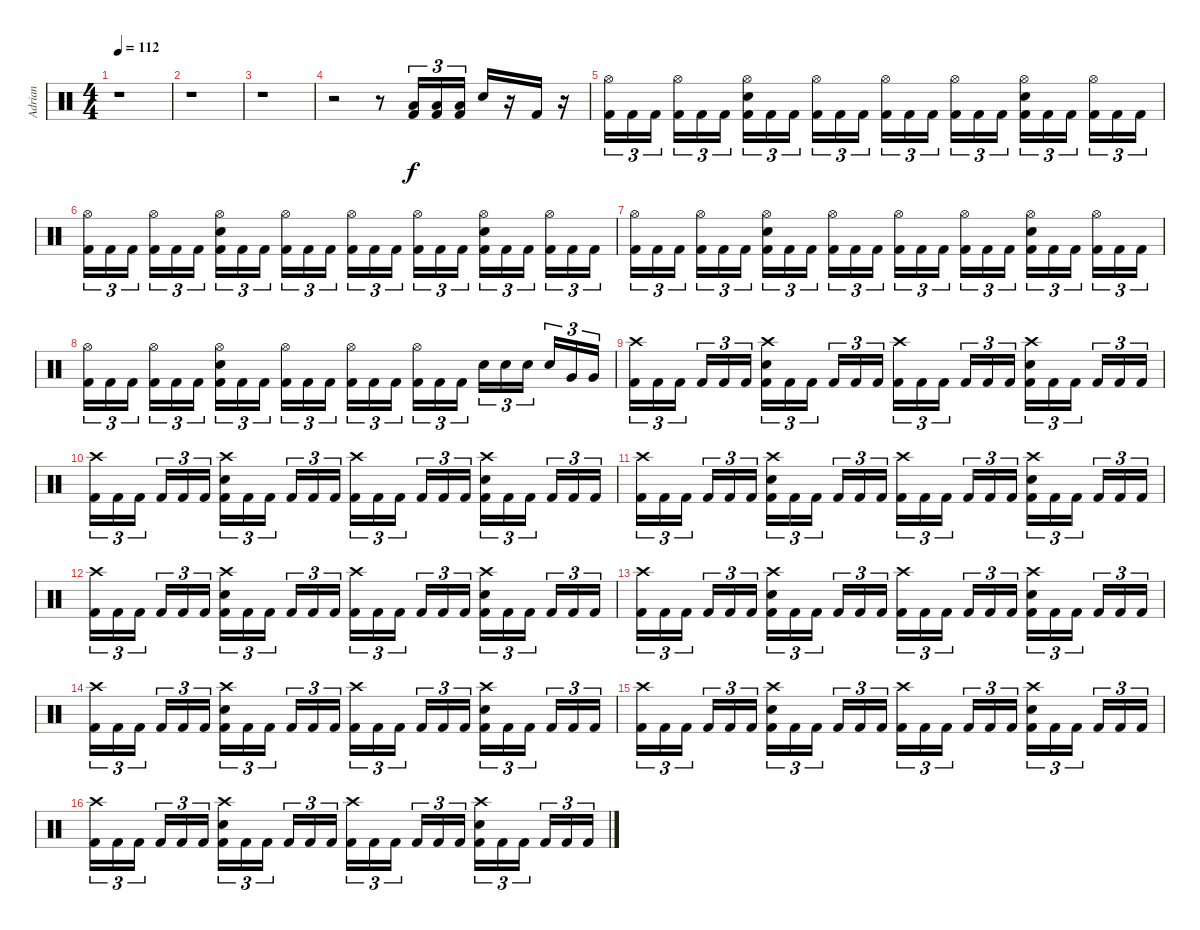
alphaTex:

\track ("Adrian" "Adrian") {instrument percussion}
\staff {score}
\articulation defaults
\ts (4 4)
\tempo 112
\clef neutral
\ks c
r.1{dy f} |
r.1 |
r.1 |
r.2 r.8 ("Low Floor Tom (hit)" "Kick (hit) 2").16{tu (3 2)} ("Low Floor Tom (hit)" "Kick (hit) 2").16{tu (3 2)} ("Low Floor Tom (hit)" "Kick (hit) 2").16{tu (3 2)} "Snare (hit) 2".16 r.16 "Kick (hit) 2".16 r.16 |
("Hi-Hat (open)" "Kick (hit) 2").16{tu (3 2)} "Kick (hit) 2".16{tu (3 2)} "Kick (hit) 2".16{tu (3 2)} ("Hi-Hat (open)" "Kick (hit) 2").16{tu (3 2)} "Kick (hit) 2".16{tu (3 2)} "Kick (hit) 2".16{tu (3 2)} ("Hi-Hat (open)" "Snare (hit) 2" "Kick (hit) 2").16{tu (3 2)} "Kick (hit) 2".16{tu (3 2)} "Kick (hit) 2".16{tu (3 2)} ("Hi-Hat (open)" "Kick (hit) 2").16{tu (3 2)} "Kick (hit) 2".16{tu (3 2)} "Kick (hit) 2".16{tu (3 2)} ("Hi-Hat (open)" "Kick (hit) 2").16{tu (3 2)} "Kick (hit) 2".16{tu (3 2)} "Kick (hit) 2".16{tu (3 2)} ("Hi-Hat (open)" "Kick (hit) 2").16{tu (3 2)} "Kick (hit) 2".16{tu (3 2)} "Kick (hit) 2".16{tu (3 2)} ("Hi-Hat (open)" "Snare (hit) 2" "Kick (hit) 2").16{tu (3 2)} "Kick (hit) 2".16{tu (3 2)} "Kick (hit) 2".16{tu (3 2)} ("Hi-Hat (open)" "Kick (hit) 2").16{tu (3 2)} "Kick (hit) 2".16{tu (3 2)} "Kick (hit) 2".16{tu (3 2)} |
("Hi-Hat (open)" "Kick (hit) 2").16{tu (3 2)} "Kick (hit) 2".16{tu (3 2)} "Kick (hit) 2".16{tu (3 2)} ("Hi-Hat (open)" "Kick (hit) 2").16{tu (3 2)} "Kick (hit) 2".16{tu (3 2)} "Kick (hit) 2".16{tu (3 2)} ("Hi-Hat (open)" "Snare (hit) 2" "Kick (hit) 2").16{tu (3 2)} "Kick (hit) 2".16{tu (3 2)} "Kick (hit) 2".16{tu (3 2)} ("Hi-Hat (open)" "Kick (hit) 2").16{tu (3 2)} "Kick (hit) 2".16{tu (3 2)} "Kick (hit) 2".16{tu (3 2)} ("Hi-Hat (open)" "Kick (hit) 2").16{tu (3 2)} "Kick (hit) 2".16{tu (3 2)} "Kick (hit) 2".16{tu (3 2)} ("Hi-Hat (open)" "Kick (hit) 2").16{tu (3 2)} "Kick (hit) 2".16{tu (3 2)} "Kick (hit) 2".16{tu (3 2)} ("Hi-Hat (open)" "Snare (hit) 2" "Kick (hit) 2").16{tu (3 2)} "Kick (hit) 2".16{tu (3 2)} "Kick (hit) 2".16{tu (3 2)} ("Hi-Hat (open)" "Kick (hit) 2").16{tu (3 2)} "Kick (hit) 2".16{tu (3 2)} "Kick (hit) 2".16{tu (3 2)} |
("Hi-Hat (open)" "Kick (hit) 2").16{tu (3 2)} "Kick (hit) 2".16{tu (3 2)} "Kick (hit) 2".16{tu (3 2)} ("Hi-Hat (open)" "Kick (hit) 2").16{tu (3 2)} "Kick (hit) 2".16{tu (3 2)} "Kick (hit) 2".16{tu (3 2)} ("Hi-Hat (open)" "Snare (hit) 2" "Kick (hit) 2").16{tu (3 2)} "Kick (hit) 2".16{tu (3 2)} "Kick (hit) 2".16{tu (3 2)} ("Hi-Hat (open)" "Kick (hit) 2").16{tu (3 2)} "Kick (hit) 2".16{tu (3 2)} "Kick (hit) 2".16{tu (3 2)} ("Hi-Hat (open)" "Kick (hit) 2").16{tu (3 2)} "Kick (hit) 2".16{tu (3 2)} "Kick (hit) 2".16{tu (3 2)} ("Hi-Hat (open)" "Kick (hit) 2").16{tu (3 2)} "Kick (hit) 2".16{tu (3 2)} "Kick (hit) 2".16{tu (3 2)} ("Hi-Hat (open)" "Snare (hit) 2" "Kick (hit) 2").16{tu (3 2)} "Kick (hit) 2".16{tu (3 2)} "Kick (hit) 2".16{tu (3 2)} ("Hi-Hat (open)" "Kick (hit) 2").16{tu (3 2)} "Kick (hit) 2".16{tu (3 2)} "Kick (hit) 2".16{tu (3 2)} |
("Hi-Hat (open)" "Kick (hit) 2").16{tu (3 2)} "Kick (hit) 2".16{tu (3 2)} "Kick (hit) 2".16{tu (3 2)} ("Hi-Hat (open)" "Kick (hit) 2").16{tu (3 2)} "Kick (hit) 2".16{tu (3 2)} "Kick (hit) 2".16{tu (3 2)} ("Hi-Hat (open)" "Snare (hit) 2" "Kick (hit) 2").16{tu (3 2)} "Kick (hit) 2".16{tu (3 2)} "Kick (hit) 2".16{tu (3 2)} ("Hi-Hat (open)" "Kick (hit) 2").16{tu (3 2)} "Kick (hit) 2".16{tu (3 2)} "Kick (hit) 2".16{tu (3 2)} ("Hi-Hat (open)" "Kick (hit) 2").16{tu (3 2)} "Kick (hit) 2".16{tu (3 2)} "Kick (hit) 2".16{tu (3 2)} ("Hi-Hat (open)" "Kick (hit) 2").16{tu (3 2)} "Kick (hit) 2".16{tu (3 2)} "Kick (hit) 2".16{tu (3 2)} "Snare (hit) 2".16{tu (3 2)} "Snare (hit) 2".16{tu (3 2)} "Snare (hit) 2".16{tu (3 2)} "Snare (hit) 2".16{tu (3 2)} "Very Low Tom (hit)".16{tu (3 2)} "Very Low Tom (hit)".16{tu (3 2)} |
("Crash high (hit)" "Kick (hit) 2").16{tu (3 2)} "Kick (hit) 2".16{tu (3 2)} "Kick (hit) 2".16{tu (3 2)} "Kick (hit) 2".16{tu (3 2)} "Kick (hit) 2".16{tu (3 2)} "Kick (hit) 2".16{tu (3 2)} ("Crash high (hit)" "Snare (hit) 2" "Kick (hit) 2").16{tu (3 2)} "Kick (hit) 2".16{tu (3 2)} "Kick (hit) 2".16{tu (3 2)} "Kick (hit) 2".16{tu (3 2)} "Kick (hit) 2".16{tu (3 2)} "Kick (hit) 2".16{tu (3 2)} ("Crash high (hit)" "Kick (hit) 2").16{tu (3 2)} "Kick (hit) 2".16{tu (3 2)} "Kick (hit) 2".16{tu (3 2)} "Kick (hit) 2".16{tu (3 2)} "Kick (hit) 2".16{tu (3 2)} "Kick (hit) 2".16{tu (3 2)} ("Crash high (hit)" "Snare (hit) 2" "Kick (hit) 2").16{tu (3 2)} "Kick (hit) 2".16{tu (3 2)} "Kick (hit) 2".16{tu (3 2)} "Kick (hit) 2".16{tu (3 2)} "Kick (hit) 2".16{tu (3 2)} "Kick (hit) 2".16{tu (3 2)} |
("Crash high (hit)" "Kick (hit) 2").16{tu (3 2)} "Kick (hit) 2".16{tu (3 2)} "Kick (hit) 2".16{tu (3 2)} "Kick (hit) 2".16{tu (3 2)} "Kick (hit) 2".16{tu (3 2)} "Kick (hit) 2".16{tu (3 2)} ("Crash high (hit)" "Snare (hit) 2" "Kick (hit) 2").16{tu (3 2)} "Kick (hit) 2".16{tu (3 2)} "Kick (hit) 2".16{tu (3 2)} "Kick (hit) 2".16{tu (3 2)} "Kick (hit) 2".16{tu (3 2)} "Kick (hit) 2".16{tu (3 2)} ("Crash high (hit)" "Kick (hit) 2").16{tu (3 2)} "Kick (hit) 2".16{tu (3 2)} "Kick (hit) 2".16{tu (3 2)} "Kick (hit) 2".16{tu (3 2)} "Kick (hit) 2".16{tu (3 2)} "Kick (hit) 2".16{tu (3 2)} ("Crash high (hit)" "Snare (hit) 2" "Kick (hit) 2").16{tu (3 2)} "Kick (hit) 2".16{tu (3 2)} "Kick (hit) 2".16{tu (3 2)} "Kick (hit) 2".16{tu (3 2)} "Kick (hit) 2".16{tu (3 2)} "Kick (hit) 2".16{tu (3 2)} |
("Crash high (hit)" "Kick (hit) 2").16{tu (3 2)} "Kick (hit) 2".16{tu (3 2)} "Kick (hit) 2".16{tu (3 2)} "Kick (hit) 2".16{tu (3 2)} "Kick (hit) 2".16{tu (3 2)} "Kick (hit) 2".16{tu (3 2)} ("Crash high (hit)" "Snare (hit) 2" "Kick (hit) 2").16{tu (3 2)} "Kick (hit) 2".16{tu (3 2)} "Kick (hit) 2".16{tu (3 2)} "Kick (hit) 2".16{tu (3 2)} "Kick (hit) 2".16{tu (3 2)} "Kick (hit) 2".16{tu (3 2)} ("Crash high (hit)" "Kick (hit) 2").16{tu (3 2)} "Kick (hit) 2".16{tu (3 2)} "Kick (hit) 2".16{tu (3 2)} "Kick (hit) 2".16{tu (3 2)} "Kick (hit) 2".16{tu (3 2)} "Kick (hit) 2".16{tu (3 2)} ("Crash high (hit)" "Snare (hit) 2" "Kick (hit) 2").16{tu (3 2)} "Kick (hit) 2".16{tu (3 2)} "Kick (hit) 2".16{tu (3 2)} "Kick (hit) 2".16{tu (3 2)} "Kick (hit) 2".16{tu (3 2)} "Kick (hit) 2".16{tu (3 2)} |
("Crash high (hit)" "Kick (hit) 2").16{tu (3 2)} "Kick (hit) 2".16{tu (3 2)} "Kick (hit) 2".16{tu (3 2)} "Kick (hit) 2".16{tu (3 2)} "Kick (hit) 2".16{tu (3 2)} "Kick (hit) 2".16{tu (3 2)} ("Crash high (hit)" "Snare (hit) 2" "Kick (hit) 2").16{tu (3 2)} "Kick (hit) 2".16{tu (3 2)} "Kick (hit) 2".16{tu (3 2)} "Kick (hit) 2".16{tu (3 2)} "Kick (hit) 2".16{tu (3 2)} "Kick (hit) 2".16{tu (3 2)} ("Crash high (hit)" "Kick (hit) 2").16{tu (3 2)} "Kick (hit) 2".16{tu (3 2)} "Kick (hit) 2".16{tu (3 2)} "Kick (hit) 2".16{tu (3 2)} "Kick (hit) 2".16{tu (3 2)} "Kick (hit) 2".16{tu (3 2)} ("Crash high (hit)" "Snare (hit) 2" "Kick (hit) 2").16{tu (3 2)} "Kick (hit) 2".16{tu (3 2)} "Kick (hit) 2".16{tu (3 2)} "Kick (hit) 2".16{tu (3 2)} "Kick (hit) 2".16{tu (3 2)} "Kick (hit) 2".16{tu (3 2)} |
("Crash high (hit)" "Kick (hit) 2").16{tu (3 2)} "Kick (hit) 2".16{tu (3 2)} "Kick (hit) 2".16{tu (3 2)} "Kick (hit) 2".16{tu (3 2)} "Kick (hit) 2".16{tu (3 2)} "Kick (hit) 2".16{tu (3 2)} ("Crash high (hit)" "Snare (hit) 2" "Kick (hit) 2").16{tu (3 2)} "Kick (hit) 2".16{tu (3 2)} "Kick (hit) 2".16{tu (3 2)} "Kick (hit) 2".16{tu (3 2)} "Kick (hit) 2".16{tu (3 2)} "Kick (hit) 2".16{tu (3 2)} ("Crash high (hit)" "Kick (hit) 2").16{tu (3 2)} "Kick (hit) 2".16{tu (3 2)} "Kick (hit) 2".16{tu (3 2)} "Kick (hit) 2".16{tu (3 2)} "Kick (hit) 2".16{tu (3 2)} "Kick (hit) 2".16{tu (3 2)} ("Crash high (hit)" "Snare (hit) 2" "Kick (hit) 2").16{tu (3 2)} "Kick (hit) 2".16{tu (3 2)} "Kick (hit) 2".16{tu (3 2)} "Kick (hit) 2".16{tu (3 2)} "Kick (hit) 2".16{tu (3 2)} "Kick (hit) 2".16{tu (3 2)} |
("Crash high (hit)" "Kick (hit) 2").16{tu (3 2)} "Kick (hit) 2".16{tu (3 2)} "Kick (hit) 2".16{tu (3 2)} "Kick (hit) 2".16{tu (3 2)} "Kick (hit) 2".16{tu (3 2)} "Kick (hit) 2".16{tu (3 2)} ("Crash high (hit)" "Snare (hit) 2" "Kick (hit) 2").16{tu (3 2)} "Kick (hit) 2".16{tu (3 2)} "Kick (hit) 2".16{tu (3 2)} "Kick (hit) 2".16{tu (3 2)} "Kick (hit) 2".16{tu (3 2)} "Kick (hit) 2".16{tu (3 2)} ("Crash high (hit)" "Kick (hit) 2").16{tu (3 2)} "Kick (hit) 2".16{tu (3 2)} "Kick (hit) 2".16{tu (3 2)} "Kick (hit) 2".16{tu (3 2)} "Kick (hit) 2".16{tu (3 2)} "Kick (hit) 2".16{tu (3 2)} ("Crash high (hit)" "Snare (hit) 2" "Kick (hit) 2").16{tu (3 2)} "Kick (hit) 2".16{tu (3 2)} "Kick (hit) 2".16{tu (3 2)} "Kick (hit) 2".16{tu (3 2)} "Kick (hit) 2".16{tu (3 2)} "Kick (hit) 2".16{tu (3 2)} |
("Crash high (hit)" "Kick (hit) 2").16{tu (3 2)} "Kick (hit) 2".16{tu (3 2)} "Kick (hit) 2".16{tu (3 2)} "Kick (hit) 2".16{tu (3 2)} "Kick (hit) 2".16{tu (3 2)} "Kick (hit) 2".16{tu (3 2)} ("Crash high (hit)" "Snare (hit) 2" "Kick (hit) 2").16{tu (3 2)} "Kick (hit) 2".16{tu (3 2)} "Kick (hit) 2".16{tu (3 2)} "Kick (hit) 2".16{tu (3 2)} "Kick (hit) 2".16{tu (3 2)} "Kick (hit) 2".16{tu (3 2)} ("Crash high (hit)" "Kick (hit) 2").16{tu (3 2)} "Kick (hit) 2".16{tu (3 2)} "Kick (hit) 2".16{tu (3 2)} "Kick (hit) 2".16{tu (3 2)} "Kick (hit) 2".16{tu (3 2)} "Kick (hit) 2".16{tu (3 2)} ("Crash high (hit)" "Snare (hit) 2" "Kick (hit) 2").16{tu (3 2)} "Kick (hit) 2".16{tu (3 2)} "Kick (hit) 2".16{tu (3 2)} "Kick (hit) 2".16{tu (3 2)} "Kick (hit) 2".16{tu (3 2)} "Kick (hit) 2".16{tu (3 2)} |
("Crash high (hit)" "Kick (hit) 2").16{tu (3 2)} "Kick (hit) 2".16{tu (3 2)} "Kick (hit) 2".16{tu (3 2)} "Kick (hit) 2".16{tu (3 2)} "Kick (hit) 2".16{tu (3 2)} "Kick (hit) 2".16{tu (3 2)} ("Crash high (hit)" "Snare (hit) 2" "Kick (hit) 2").16{tu (3 2)} "Kick (hit) 2".16{tu (3 2)} "Kick (hit) 2".16{tu (3 2)} "Kick (hit) 2".16{tu (3 2)} "Kick (hit) 2".16{tu (3 2)} "Kick (hit) 2".16{tu (3 2)} ("Crash high (hit)" "Kick (hit) 2").16{tu (3 2)} "Kick (hit) 2".16{tu (3 2)} "Kick (hit) 2".16{tu (3 2)} "Kick (hit) 2".16{tu (3 2)} "Kick (hit) 2".16{tu (3 2)} "Kick (hit) 2".16{tu (3 2)} ("Crash high (hit)" "Snare (hit) 2" "Kick (hit) 2").16{tu (3 2)} "Kick (hit) 2".16{tu (3 2)} "Kick (hit) 2".16{tu (3 2)} "Kick (hit) 2".16{tu (3 2)} "Kick (hit) 2".16{tu (3 2)} "Kick (hit) 2".16{tu (3 2)}
